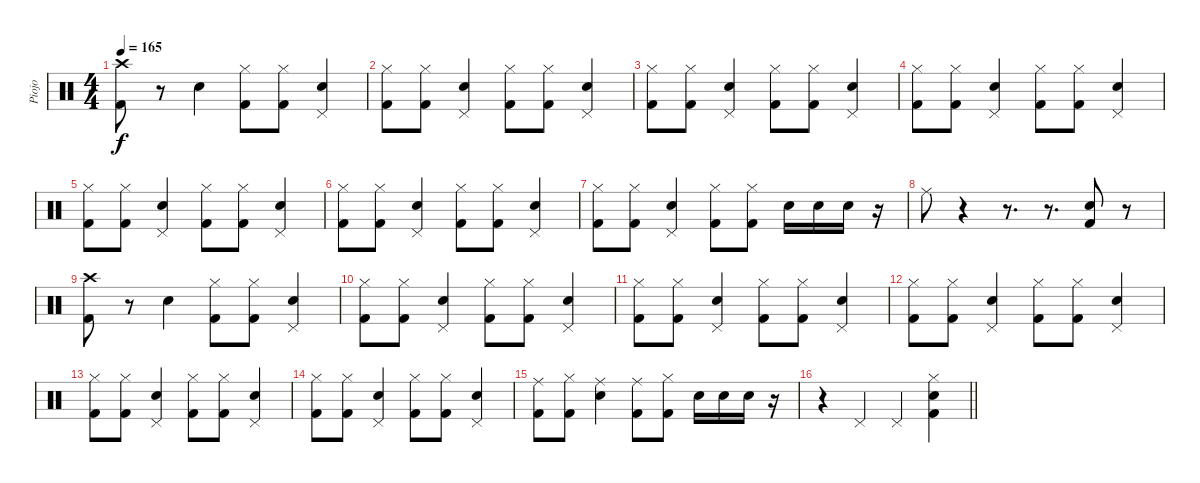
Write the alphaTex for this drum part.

\track ("Piojo" "Piojo") {instrument percussion}
\staff {score}
\articulation defaults
\ts (4 4)
\tempo 165
\clef neutral
\ks c
("Crash high (hit)" "Kick (hit) 2").8{dy f} r.8 "Electric Snare (hit)".4 ("Hi-Hat (closed)" "Kick (hit) 2").8 ("Hi-Hat (closed)" "Kick (hit) 2").8 ("Pedal Hi-Hat (hit)" "Electric Snare (hit)").4 |
("Hi-Hat (closed)" "Kick (hit) 2").8 ("Hi-Hat (closed)" "Kick (hit) 2").8 ("Pedal Hi-Hat (hit)" "Electric Snare (hit)").4 ("Hi-Hat (closed)" "Kick (hit) 2").8 ("Hi-Hat (closed)" "Kick (hit) 2").8 ("Pedal Hi-Hat (hit)" "Electric Snare (hit)").4 |
("Hi-Hat (closed)" "Kick (hit) 2").8 ("Hi-Hat (closed)" "Kick (hit) 2").8 ("Pedal Hi-Hat (hit)" "Electric Snare (hit)").4 ("Hi-Hat (closed)" "Kick (hit) 2").8 ("Hi-Hat (closed)" "Kick (hit) 2").8 ("Pedal Hi-Hat (hit)" "Electric Snare (hit)").4 |
("Hi-Hat (closed)" "Kick (hit) 2").8 ("Hi-Hat (closed)" "Kick (hit) 2").8 ("Pedal Hi-Hat (hit)" "Electric Snare (hit)").4 ("Hi-Hat (closed)" "Kick (hit) 2").8 ("Hi-Hat (closed)" "Kick (hit) 2").8 ("Pedal Hi-Hat (hit)" "Electric Snare (hit)").4 |
("Hi-Hat (closed)" "Kick (hit) 2").8 ("Hi-Hat (closed)" "Kick (hit) 2").8 ("Pedal Hi-Hat (hit)" "Electric Snare (hit)").4 ("Hi-Hat (closed)" "Kick (hit) 2").8 ("Hi-Hat (closed)" "Kick (hit) 2").8 ("Pedal Hi-Hat (hit)" "Electric Snare (hit)").4 |
("Hi-Hat (closed)" "Kick (hit) 2").8 ("Hi-Hat (closed)" "Kick (hit) 2").8 ("Pedal Hi-Hat (hit)" "Electric Snare (hit)").4 ("Hi-Hat (closed)" "Kick (hit) 2").8 ("Hi-Hat (closed)" "Kick (hit) 2").8 ("Pedal Hi-Hat (hit)" "Electric Snare (hit)").4 |
("Hi-Hat (closed)" "Kick (hit) 2").8 ("Hi-Hat (closed)" "Kick (hit) 2").8 ("Pedal Hi-Hat (hit)" "Electric Snare (hit)").4 ("Hi-Hat (closed)" "Kick (hit) 2").8 ("Hi-Hat (closed)" "Kick (hit) 2").8 "Electric Snare (hit)".16 "Electric Snare (hit)".16 "Electric Snare (hit)".16 r.16 |
"Ride (middle)".8 r.4 r.8{d} r.8{d} ("Electric Snare (hit)" "Kick (hit) 2").8 r.8 |
("Crash high (hit)" "Kick (hit) 2").8 r.8 "Electric Snare (hit)".4 ("Hi-Hat (closed)" "Kick (hit) 2").8 ("Hi-Hat (closed)" "Kick (hit) 2").8 ("Pedal Hi-Hat (hit)" "Electric Snare (hit)").4 |
("Hi-Hat (closed)" "Kick (hit) 2").8 ("Hi-Hat (closed)" "Kick (hit) 2").8 ("Pedal Hi-Hat (hit)" "Electric Snare (hit)").4 ("Hi-Hat (closed)" "Kick (hit) 2").8 ("Hi-Hat (closed)" "Kick (hit) 2").8 ("Pedal Hi-Hat (hit)" "Electric Snare (hit)").4 |
("Hi-Hat (closed)" "Kick (hit) 2").8 ("Hi-Hat (closed)" "Kick (hit) 2").8 ("Pedal Hi-Hat (hit)" "Electric Snare (hit)").4 ("Hi-Hat (closed)" "Kick (hit) 2").8 ("Hi-Hat (closed)" "Kick (hit) 2").8 ("Pedal Hi-Hat (hit)" "Electric Snare (hit)").4 |
("Hi-Hat (closed)" "Kick (hit) 2").8 ("Hi-Hat (closed)" "Kick (hit) 2").8 ("Pedal Hi-Hat (hit)" "Electric Snare (hit)").4 ("Hi-Hat (closed)" "Kick (hit) 2").8 ("Hi-Hat (closed)" "Kick (hit) 2").8 ("Pedal Hi-Hat (hit)" "Electric Snare (hit)").4 |
("Hi-Hat (closed)" "Kick (hit) 2").8 ("Hi-Hat (closed)" "Kick (hit) 2").8 ("Pedal Hi-Hat (hit)" "Electric Snare (hit)").4 ("Hi-Hat (closed)" "Kick (hit) 2").8 ("Hi-Hat (closed)" "Kick (hit) 2").8 ("Pedal Hi-Hat (hit)" "Electric Snare (hit)").4 |
("Hi-Hat (closed)" "Kick (hit) 2").8 ("Hi-Hat (closed)" "Kick (hit) 2").8 ("Pedal Hi-Hat (hit)" "Electric Snare (hit)").4 ("Hi-Hat (closed)" "Kick (hit) 2").8 ("Hi-Hat (closed)" "Kick (hit) 2").8 ("Pedal Hi-Hat (hit)" "Electric Snare (hit)").4 |
("Ride (middle)" "Kick (hit) 2").8 ("Hi-Hat (closed)" "Kick (hit) 2").8 ("Ride (middle)" "Electric Snare (hit)").4 ("Ride (middle)" "Kick (hit) 2").8 ("Hi-Hat (closed)" "Kick (hit) 2").8 "Electric Snare (hit)".16 "Electric Snare (hit)".16 "Electric Snare (hit)".16 r.16 |
\barLineRight lightlight
r.4 "Pedal Hi-Hat (hit)".4 "Pedal Hi-Hat (hit)".4 ("Hi-Hat (closed)" "Electric Snare (hit)" "Kick (hit) 2").4
